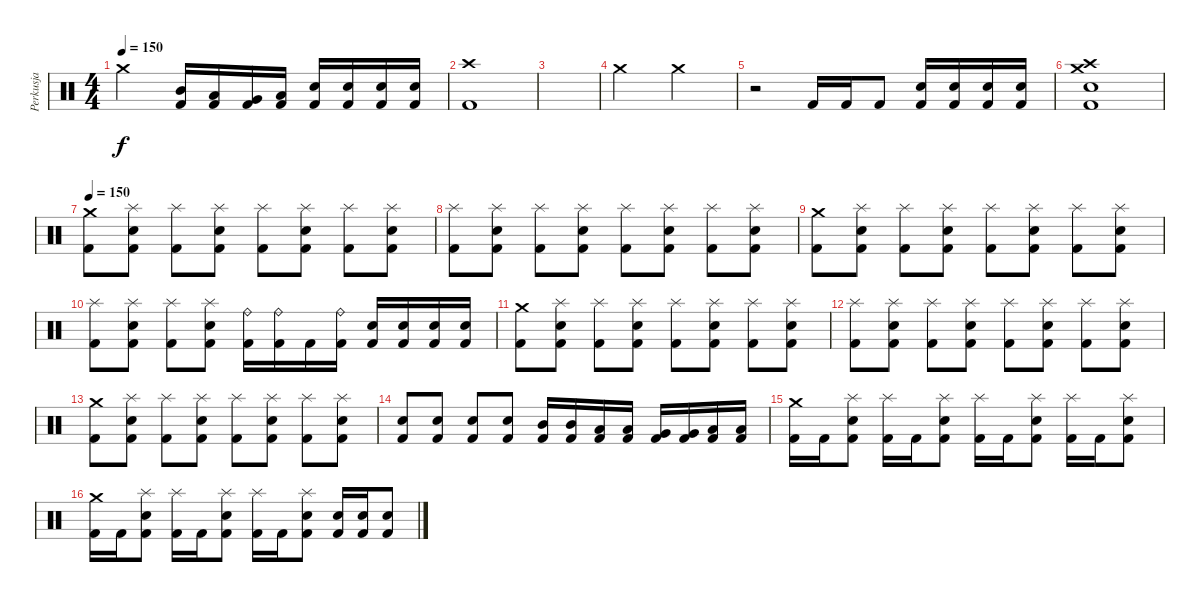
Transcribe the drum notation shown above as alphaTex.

\track ("Perkusja" "Perkusja") {instrument percussion}
\staff {score}
\articulation defaults
\ts (4 4)
\tempo 150
\clef neutral
\ks c "Crash medium (hit)".2{dy f}
("Mid Tom (hit)" "Kick (hit) 2").16 ("Low Tom (hit)" "Kick (hit) 2").16 ("Very Low Tom (hit)" "Kick (hit) 2").16 ("Low Floor Tom (hit)" "Kick (hit) 2").16 ("Electric Snare (hit)" "Kick (hit) 2").16 ("Electric Snare (hit)" "Kick (hit) 2").16 ("Electric Snare (hit)" "Kick (hit) 2").16 ("Electric Snare (hit)" "Kick (hit) 2").16 |
("Crash high (hit)" "Kick (hit) 2").1 |
|
"Crash medium (hit)".2 "Crash medium (hit)".2 |
r.2 "Kick (hit) 2".16 "Kick (hit) 2".16 "Kick (hit) 2".8 ("Electric Snare (hit)" "Kick (hit) 2").16 ("Electric Snare (hit)" "Kick (hit) 2").16 ("Electric Snare (hit)" "Kick (hit) 2").16 ("Electric Snare (hit)" "Kick (hit) 2").16 |
("Snare (hit) 2" "Kick (hit) 2" "Crash high (hit)" "Crash medium (hit)").1 |
\tempo 150
("Crash medium (hit)" "Kick (hit) 2").8 ("Splash (hit)" "Electric Snare (hit)" "Kick (hit) 2").8 ("Splash (hit)" "Kick (hit) 2").8 ("Splash (hit)" "Electric Snare (hit)" "Kick (hit) 2").8 ("Splash (hit)" "Kick (hit) 2").8 ("Splash (hit)" "Electric Snare (hit)" "Kick (hit) 2").8 ("Splash (hit)" "Kick (hit) 2").8 ("Splash (hit)" "Electric Snare (hit)" "Kick (hit) 2").8 |
("Splash (hit)" "Kick (hit) 2").8 ("Splash (hit)" "Electric Snare (hit)" "Kick (hit) 2").8 ("Splash (hit)" "Kick (hit) 2").8 ("Splash (hit)" "Electric Snare (hit)" "Kick (hit) 2").8 ("Splash (hit)" "Kick (hit) 2").8 ("Splash (hit)" "Electric Snare (hit)" "Kick (hit) 2").8 ("Splash (hit)" "Kick (hit) 2").8 ("Splash (hit)" "Electric Snare (hit)" "Kick (hit) 2").8 |
("Crash medium (hit)" "Kick (hit) 2").8 ("Splash (hit)" "Electric Snare (hit)" "Kick (hit) 2").8 ("Splash (hit)" "Kick (hit) 2").8 ("Splash (hit)" "Electric Snare (hit)" "Kick (hit) 2").8 ("Splash (hit)" "Kick (hit) 2").8 ("Splash (hit)" "Electric Snare (hit)" "Kick (hit) 2").8 ("Splash (hit)" "Kick (hit) 2").8 ("Splash (hit)" "Electric Snare (hit)" "Kick (hit) 2").8 |
("Splash (hit)" "Kick (hit) 2").8 ("Splash (hit)" "Electric Snare (hit)" "Kick (hit) 2").8 ("Splash (hit)" "Kick (hit) 2").8 ("Splash (hit)" "Electric Snare (hit)" "Kick (hit) 2").8 ("Ride (bell)" "Kick (hit) 2").16 ("Ride (bell)" "Kick (hit) 2").16 "Kick (hit) 2".16 ("Ride (bell)" "Kick (hit) 2").16 ("Electric Snare (hit)" "Kick (hit) 2").16 ("Electric Snare (hit)" "Kick (hit) 2").16 ("Electric Snare (hit)" "Kick (hit) 2").16 ("Electric Snare (hit)" "Kick (hit) 2").16 |
("Crash medium (hit)" "Kick (hit) 2").8 ("Splash (hit)" "Electric Snare (hit)" "Kick (hit) 2").8 ("Splash (hit)" "Kick (hit) 2").8 ("Splash (hit)" "Electric Snare (hit)" "Kick (hit) 2").8 ("Splash (hit)" "Kick (hit) 2").8 ("Splash (hit)" "Electric Snare (hit)" "Kick (hit) 2").8 ("Splash (hit)" "Kick (hit) 2").8 ("Splash (hit)" "Electric Snare (hit)" "Kick (hit) 2").8 |
("Splash (hit)" "Kick (hit) 2").8 ("Splash (hit)" "Electric Snare (hit)" "Kick (hit) 2").8 ("Splash (hit)" "Kick (hit) 2").8 ("Splash (hit)" "Electric Snare (hit)" "Kick (hit) 2").8 ("Splash (hit)" "Kick (hit) 2").8 ("Splash (hit)" "Electric Snare (hit)" "Kick (hit) 2").8 ("Splash (hit)" "Kick (hit) 2").8 ("Splash (hit)" "Electric Snare (hit)" "Kick (hit) 2").8 |
("Crash medium (hit)" "Kick (hit) 2").8 ("Splash (hit)" "Electric Snare (hit)" "Kick (hit) 2").8 ("Splash (hit)" "Kick (hit) 2").8 ("Splash (hit)" "Electric Snare (hit)" "Kick (hit) 2").8 ("Splash (hit)" "Kick (hit) 2").8 ("Splash (hit)" "Electric Snare (hit)" "Kick (hit) 2").8 ("Splash (hit)" "Kick (hit) 2").8 ("Splash (hit)" "Electric Snare (hit)" "Kick (hit) 2").8 |
("Electric Snare (hit)" "Kick (hit) 2").8 ("Electric Snare (hit)" "Kick (hit) 2").8 ("Electric Snare (hit)" "Kick (hit) 2").8 ("Electric Snare (hit)" "Kick (hit) 2").8 ("Mid Tom (hit)" "Kick (hit) 2").16 ("Mid Tom (hit)" "Kick (hit) 2").16 ("Low Tom (hit)" "Kick (hit) 2").16 ("Low Tom (hit)" "Kick (hit) 2").16 ("Very Low Tom (hit)" "Kick (hit) 2").16 ("Very Low Tom (hit)" "Kick (hit) 2").16 ("Low Floor Tom (hit)" "Kick (hit) 2").16 ("Low Floor Tom (hit)" "Kick (hit) 2").16 |
("Crash medium (hit)" "Kick (hit) 2").16 "Kick (hit) 2".16 ("Splash (hit)" "Electric Snare (hit)" "Kick (hit) 2").8 ("Splash (hit)" "Kick (hit) 2").16 "Kick (hit) 2".16 ("Splash (hit)" "Electric Snare (hit)" "Kick (hit) 2").8 ("Splash (hit)" "Kick (hit) 2").16 "Kick (hit) 2".16 ("Splash (hit)" "Electric Snare (hit)" "Kick (hit) 2").8 ("Splash (hit)" "Kick (hit) 2").16 "Kick (hit) 2".16 ("Splash (hit)" "Electric Snare (hit)" "Kick (hit) 2").8 |
("Crash medium (hit)" "Kick (hit) 2").16 "Kick (hit) 2".16 ("Splash (hit)" "Electric Snare (hit)" "Kick (hit) 2").8 ("Splash (hit)" "Kick (hit) 2").16 "Kick (hit) 2".16 ("Splash (hit)" "Electric Snare (hit)" "Kick (hit) 2").8 ("Splash (hit)" "Kick (hit) 2").16 "Kick (hit) 2".16 ("Splash (hit)" "Electric Snare (hit)" "Kick (hit) 2").8 ("Electric Snare (hit)" "Kick (hit) 2").16 ("Electric Snare (hit)" "Kick (hit) 2").16 ("Electric Snare (hit)" "Kick (hit) 2").8
